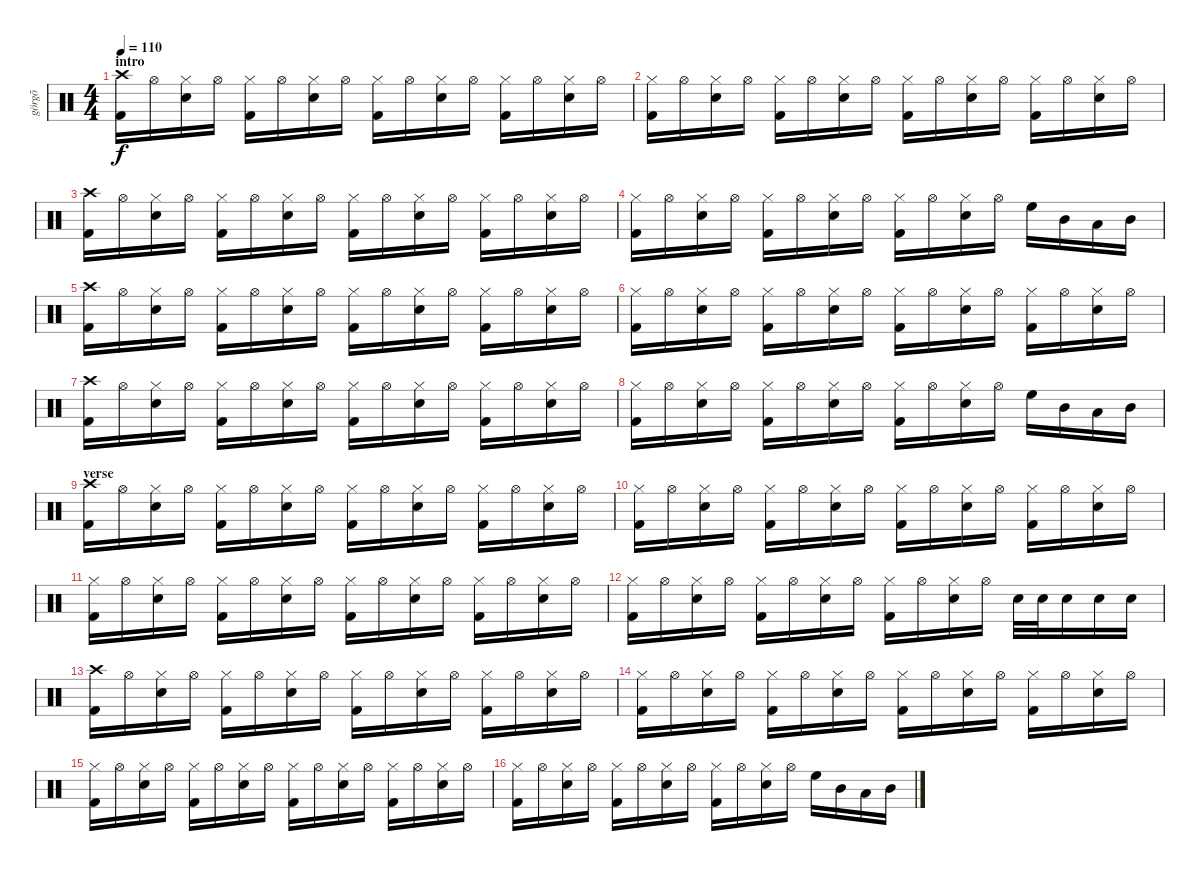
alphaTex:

\track ("görgõ" "görgõ") {instrument percussion}
\staff {score}
\articulation defaults
\ts (4 4)
\section ("" "intro")
\tempo 110
\clef neutral
\ks c
("Crash high (hit)" "Kick (hit) 2").16{dy f} "Hi-Hat (open)".16 ("Hi-Hat (closed)" "Snare (hit) 2").16 "Hi-Hat (open)".16 ("Hi-Hat (closed)" "Kick (hit) 2").16 "Hi-Hat (open)".16 ("Hi-Hat (closed)" "Snare (hit) 2").16 "Hi-Hat (open)".16 ("Hi-Hat (closed)" "Kick (hit) 2").16 "Hi-Hat (open)".16 ("Hi-Hat (closed)" "Snare (hit) 2").16 "Hi-Hat (open)".16 ("Hi-Hat (closed)" "Kick (hit) 2").16 "Hi-Hat (open)".16 ("Hi-Hat (closed)" "Snare (hit) 2").16 "Hi-Hat (open)".16 |
("Hi-Hat (closed)" "Kick (hit) 2").16 "Hi-Hat (open)".16 ("Hi-Hat (closed)" "Snare (hit) 2").16 "Hi-Hat (open)".16 ("Hi-Hat (closed)" "Kick (hit) 2").16 "Hi-Hat (open)".16 ("Hi-Hat (closed)" "Snare (hit) 2").16 "Hi-Hat (open)".16 ("Hi-Hat (closed)" "Kick (hit) 2").16 "Hi-Hat (open)".16 ("Hi-Hat (closed)" "Snare (hit) 2").16 "Hi-Hat (open)".16 ("Hi-Hat (closed)" "Kick (hit) 2").16 "Hi-Hat (open)".16 ("Hi-Hat (closed)" "Snare (hit) 2").16 "Hi-Hat (open)".16 |
("Crash high (hit)" "Kick (hit) 2").16 "Hi-Hat (open)".16 ("Hi-Hat (closed)" "Snare (hit) 2").16 "Hi-Hat (open)".16 ("Hi-Hat (closed)" "Kick (hit) 2").16 "Hi-Hat (open)".16 ("Hi-Hat (closed)" "Snare (hit) 2").16 "Hi-Hat (open)".16 ("Hi-Hat (closed)" "Kick (hit) 2").16 "Hi-Hat (open)".16 ("Hi-Hat (closed)" "Snare (hit) 2").16 "Hi-Hat (open)".16 ("Hi-Hat (closed)" "Kick (hit) 2").16 "Hi-Hat (open)".16 ("Hi-Hat (closed)" "Snare (hit) 2").16 "Hi-Hat (open)".16 |
("Hi-Hat (closed)" "Kick (hit) 2").16 "Hi-Hat (open)".16 ("Hi-Hat (closed)" "Snare (hit) 2").16 "Hi-Hat (open)".16 ("Hi-Hat (closed)" "Kick (hit) 2").16 "Hi-Hat (open)".16 ("Hi-Hat (closed)" "Snare (hit) 2").16 "Hi-Hat (open)".16 ("Hi-Hat (closed)" "Kick (hit) 2").16 "Hi-Hat (open)".16 ("Hi-Hat (closed)" "Snare (hit) 2").16 "Hi-Hat (open)".16 "High Floor Tom (hit)".16 "Mid Tom (hit)".16 "Low Tom (hit)".16 "Mid Tom (hit)".16 |
("Crash high (hit)" "Kick (hit) 2").16 "Hi-Hat (open)".16 ("Hi-Hat (closed)" "Snare (hit) 2").16 "Hi-Hat (open)".16 ("Hi-Hat (closed)" "Kick (hit) 2").16 "Hi-Hat (open)".16 ("Hi-Hat (closed)" "Snare (hit) 2").16 "Hi-Hat (open)".16 ("Hi-Hat (closed)" "Kick (hit) 2").16 "Hi-Hat (open)".16 ("Hi-Hat (closed)" "Snare (hit) 2").16 "Hi-Hat (open)".16 ("Hi-Hat (closed)" "Kick (hit) 2").16 "Hi-Hat (open)".16 ("Hi-Hat (closed)" "Snare (hit) 2").16 "Hi-Hat (open)".16 |
("Hi-Hat (closed)" "Kick (hit) 2").16 "Hi-Hat (open)".16 ("Hi-Hat (closed)" "Snare (hit) 2").16 "Hi-Hat (open)".16 ("Hi-Hat (closed)" "Kick (hit) 2").16 "Hi-Hat (open)".16 ("Hi-Hat (closed)" "Snare (hit) 2").16 "Hi-Hat (open)".16 ("Hi-Hat (closed)" "Kick (hit) 2").16 "Hi-Hat (open)".16 ("Hi-Hat (closed)" "Snare (hit) 2").16 "Hi-Hat (open)".16 ("Hi-Hat (closed)" "Kick (hit) 2").16 "Hi-Hat (open)".16 ("Hi-Hat (closed)" "Snare (hit) 2").16 "Hi-Hat (open)".16 |
("Crash high (hit)" "Kick (hit) 2").16 "Hi-Hat (open)".16 ("Hi-Hat (closed)" "Snare (hit) 2").16 "Hi-Hat (open)".16 ("Hi-Hat (closed)" "Kick (hit) 2").16 "Hi-Hat (open)".16 ("Hi-Hat (closed)" "Snare (hit) 2").16 "Hi-Hat (open)".16 ("Hi-Hat (closed)" "Kick (hit) 2").16 "Hi-Hat (open)".16 ("Hi-Hat (closed)" "Snare (hit) 2").16 "Hi-Hat (open)".16 ("Hi-Hat (closed)" "Kick (hit) 2").16 "Hi-Hat (open)".16 ("Hi-Hat (closed)" "Snare (hit) 2").16 "Hi-Hat (open)".16 |
("Hi-Hat (closed)" "Kick (hit) 2").16 "Hi-Hat (open)".16 ("Hi-Hat (closed)" "Snare (hit) 2").16 "Hi-Hat (open)".16 ("Hi-Hat (closed)" "Kick (hit) 2").16 "Hi-Hat (open)".16 ("Hi-Hat (closed)" "Snare (hit) 2").16 "Hi-Hat (open)".16 ("Hi-Hat (closed)" "Kick (hit) 2").16 "Hi-Hat (open)".16 ("Hi-Hat (closed)" "Snare (hit) 2").16 "Hi-Hat (open)".16 "High Floor Tom (hit)".16 "Mid Tom (hit)".16 "Low Tom (hit)".16 "Mid Tom (hit)".16 |
\section ("" "verse")
("Crash high (hit)" "Kick (hit) 2").16 "Hi-Hat (open)".16 ("Hi-Hat (closed)" "Snare (hit) 2").16 "Hi-Hat (open)".16 ("Hi-Hat (closed)" "Kick (hit) 2").16 "Hi-Hat (open)".16 ("Hi-Hat (closed)" "Snare (hit) 2").16 "Hi-Hat (open)".16 ("Hi-Hat (closed)" "Kick (hit) 2").16 "Hi-Hat (open)".16 ("Hi-Hat (closed)" "Snare (hit) 2").16 "Hi-Hat (open)".16 ("Hi-Hat (closed)" "Kick (hit) 2").16 "Hi-Hat (open)".16 ("Hi-Hat (closed)" "Snare (hit) 2").16 "Hi-Hat (open)".16 |
("Hi-Hat (closed)" "Kick (hit) 2").16 "Hi-Hat (open)".16 ("Hi-Hat (closed)" "Snare (hit) 2").16 "Hi-Hat (open)".16 ("Hi-Hat (closed)" "Kick (hit) 2").16 "Hi-Hat (open)".16 ("Hi-Hat (closed)" "Snare (hit) 2").16 "Hi-Hat (open)".16 ("Hi-Hat (closed)" "Kick (hit) 2").16 "Hi-Hat (open)".16 ("Hi-Hat (closed)" "Snare (hit) 2").16 "Hi-Hat (open)".16 ("Hi-Hat (closed)" "Kick (hit) 2").16 "Hi-Hat (open)".16 ("Hi-Hat (closed)" "Snare (hit) 2").16 "Hi-Hat (open)".16 |
("Hi-Hat (closed)" "Kick (hit) 2").16 "Hi-Hat (open)".16 ("Hi-Hat (closed)" "Snare (hit) 2").16 "Hi-Hat (open)".16 ("Hi-Hat (closed)" "Kick (hit) 2").16 "Hi-Hat (open)".16 ("Hi-Hat (closed)" "Snare (hit) 2").16 "Hi-Hat (open)".16 ("Hi-Hat (closed)" "Kick (hit) 2").16 "Hi-Hat (open)".16 ("Hi-Hat (closed)" "Snare (hit) 2").16 "Hi-Hat (open)".16 ("Hi-Hat (closed)" "Kick (hit) 2").16 "Hi-Hat (open)".16 ("Hi-Hat (closed)" "Snare (hit) 2").16 "Hi-Hat (open)".16 |
("Hi-Hat (closed)" "Kick (hit) 2").16 "Hi-Hat (open)".16 ("Hi-Hat (closed)" "Snare (hit) 2").16 "Hi-Hat (open)".16 ("Hi-Hat (closed)" "Kick (hit) 2").16 "Hi-Hat (open)".16 ("Hi-Hat (closed)" "Snare (hit) 2").16 "Hi-Hat (open)".16 ("Hi-Hat (closed)" "Kick (hit) 2").16 "Hi-Hat (open)".16 ("Hi-Hat (closed)" "Snare (hit) 2").16 "Hi-Hat (open)".16 "Snare (hit) 2".32 "Snare (hit) 2".32 "Snare (hit) 2".16 "Snare (hit) 2".16 "Snare (hit) 2".16 |
("Crash high (hit)" "Kick (hit) 2").16 "Hi-Hat (open)".16 ("Hi-Hat (closed)" "Snare (hit) 2").16 "Hi-Hat (open)".16 ("Hi-Hat (closed)" "Kick (hit) 2").16 "Hi-Hat (open)".16 ("Hi-Hat (closed)" "Snare (hit) 2").16 "Hi-Hat (open)".16 ("Hi-Hat (closed)" "Kick (hit) 2").16 "Hi-Hat (open)".16 ("Hi-Hat (closed)" "Snare (hit) 2").16 "Hi-Hat (open)".16 ("Hi-Hat (closed)" "Kick (hit) 2").16 "Hi-Hat (open)".16 ("Hi-Hat (closed)" "Snare (hit) 2").16 "Hi-Hat (open)".16 |
("Hi-Hat (closed)" "Kick (hit) 2").16 "Hi-Hat (open)".16 ("Hi-Hat (closed)" "Snare (hit) 2").16 "Hi-Hat (open)".16 ("Hi-Hat (closed)" "Kick (hit) 2").16 "Hi-Hat (open)".16 ("Hi-Hat (closed)" "Snare (hit) 2").16 "Hi-Hat (open)".16 ("Hi-Hat (closed)" "Kick (hit) 2").16 "Hi-Hat (open)".16 ("Hi-Hat (closed)" "Snare (hit) 2").16 "Hi-Hat (open)".16 ("Hi-Hat (closed)" "Kick (hit) 2").16 "Hi-Hat (open)".16 ("Hi-Hat (closed)" "Snare (hit) 2").16 "Hi-Hat (open)".16 |
("Hi-Hat (closed)" "Kick (hit) 2").16 "Hi-Hat (open)".16 ("Hi-Hat (closed)" "Snare (hit) 2").16 "Hi-Hat (open)".16 ("Hi-Hat (closed)" "Kick (hit) 2").16 "Hi-Hat (open)".16 ("Hi-Hat (closed)" "Snare (hit) 2").16 "Hi-Hat (open)".16 ("Hi-Hat (closed)" "Kick (hit) 2").16 "Hi-Hat (open)".16 ("Hi-Hat (closed)" "Snare (hit) 2").16 "Hi-Hat (open)".16 ("Hi-Hat (closed)" "Kick (hit) 2").16 "Hi-Hat (open)".16 ("Hi-Hat (closed)" "Snare (hit) 2").16 "Hi-Hat (open)".16 |
("Hi-Hat (closed)" "Kick (hit) 2").16 "Hi-Hat (open)".16 ("Hi-Hat (closed)" "Snare (hit) 2").16 "Hi-Hat (open)".16 ("Hi-Hat (closed)" "Kick (hit) 2").16 "Hi-Hat (open)".16 ("Hi-Hat (closed)" "Snare (hit) 2").16 "Hi-Hat (open)".16 ("Hi-Hat (closed)" "Kick (hit) 2").16 "Hi-Hat (open)".16 ("Hi-Hat (closed)" "Snare (hit) 2").16 "Hi-Hat (open)".16 "High Floor Tom (hit)".16 "Mid Tom (hit)".16 "Low Tom (hit)".16 "Mid Tom (hit)".16
